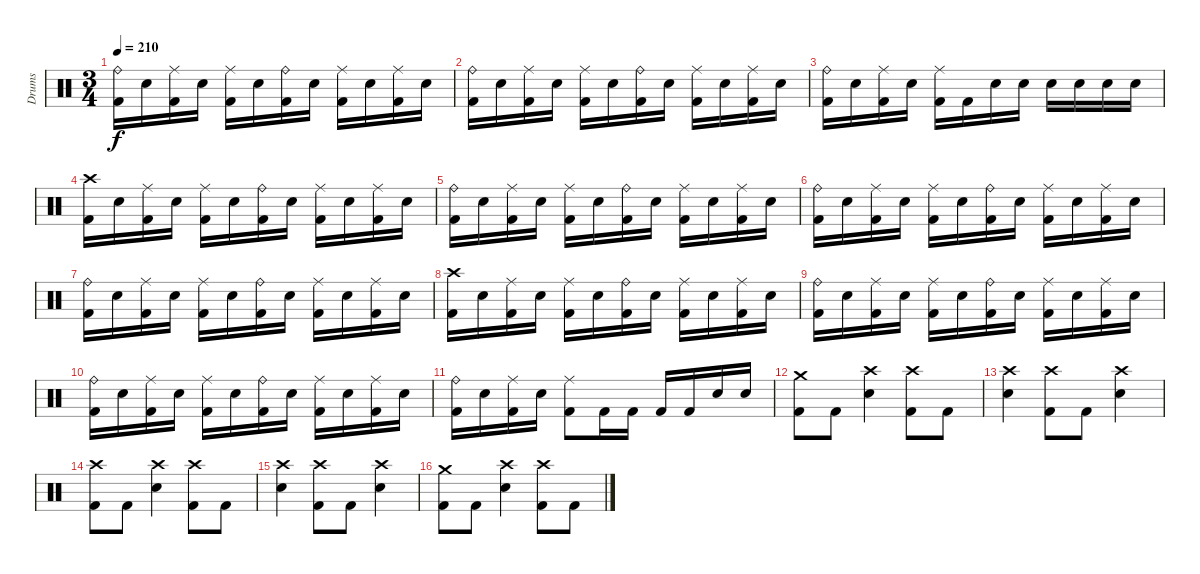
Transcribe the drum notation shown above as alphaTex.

\track ("Drums" "Drums") {instrument percussion}
\staff {score}
\articulation defaults
\ts (3 4)
\tempo 210
\clef neutral
\ks c
("Ride (bell)" "Kick (hit) 2").16{dy f} "Electric Snare (hit)".16 ("Ride (middle)" "Kick (hit) 2").16 "Electric Snare (hit)".16 ("Ride (middle)" "Kick (hit) 2").16 "Electric Snare (hit)".16 ("Ride (bell)" "Kick (hit) 2").16 "Electric Snare (hit)".16 ("Ride (middle)" "Kick (hit) 2").16 "Electric Snare (hit)".16 ("Ride (middle)" "Kick (hit) 2").16 "Electric Snare (hit)".16 |
("Ride (bell)" "Kick (hit) 2").16 "Electric Snare (hit)".16 ("Ride (middle)" "Kick (hit) 2").16 "Electric Snare (hit)".16 ("Ride (middle)" "Kick (hit) 2").16 "Electric Snare (hit)".16 ("Ride (bell)" "Kick (hit) 2").16 "Electric Snare (hit)".16 ("Ride (middle)" "Kick (hit) 2").16 "Electric Snare (hit)".16 ("Ride (middle)" "Kick (hit) 2").16 "Electric Snare (hit)".16 |
("Ride (bell)" "Kick (hit) 2").16 "Electric Snare (hit)".16 ("Ride (middle)" "Kick (hit) 2").16 "Electric Snare (hit)".16 ("Ride (middle)" "Kick (hit) 2").16 "Kick (hit) 2".16 "Electric Snare (hit)".16 "Electric Snare (hit)".16 "Electric Snare (hit)".16 "Electric Snare (hit)".16 "Electric Snare (hit)".16 "Electric Snare (hit)".16 |
("Crash high (hit)" "Kick (hit) 2").16 "Electric Snare (hit)".16 ("Ride (middle)" "Kick (hit) 2").16 "Electric Snare (hit)".16 ("Ride (middle)" "Kick (hit) 2").16 "Electric Snare (hit)".16 ("Ride (bell)" "Kick (hit) 2").16 "Electric Snare (hit)".16 ("Ride (middle)" "Kick (hit) 2").16 "Electric Snare (hit)".16 ("Ride (middle)" "Kick (hit) 2").16 "Electric Snare (hit)".16 |
("Ride (bell)" "Kick (hit) 2").16 "Electric Snare (hit)".16 ("Ride (middle)" "Kick (hit) 2").16 "Electric Snare (hit)".16 ("Ride (middle)" "Kick (hit) 2").16 "Electric Snare (hit)".16 ("Ride (bell)" "Kick (hit) 2").16 "Electric Snare (hit)".16 ("Ride (middle)" "Kick (hit) 2").16 "Electric Snare (hit)".16 ("Ride (middle)" "Kick (hit) 2").16 "Electric Snare (hit)".16 |
("Ride (bell)" "Kick (hit) 2").16 "Electric Snare (hit)".16 ("Ride (middle)" "Kick (hit) 2").16 "Electric Snare (hit)".16 ("Ride (middle)" "Kick (hit) 2").16 "Electric Snare (hit)".16 ("Ride (bell)" "Kick (hit) 2").16 "Electric Snare (hit)".16 ("Ride (middle)" "Kick (hit) 2").16 "Electric Snare (hit)".16 ("Ride (middle)" "Kick (hit) 2").16 "Electric Snare (hit)".16 |
("Ride (bell)" "Kick (hit) 2").16 "Electric Snare (hit)".16 ("Ride (middle)" "Kick (hit) 2").16 "Electric Snare (hit)".16 ("Ride (middle)" "Kick (hit) 2").16 "Electric Snare (hit)".16 ("Ride (bell)" "Kick (hit) 2").16 "Electric Snare (hit)".16 ("Ride (middle)" "Kick (hit) 2").16 "Electric Snare (hit)".16 ("Ride (middle)" "Kick (hit) 2").16 "Electric Snare (hit)".16 |
("Crash high (hit)" "Kick (hit) 2").16 "Electric Snare (hit)".16 ("Ride (middle)" "Kick (hit) 2").16 "Electric Snare (hit)".16 ("Ride (middle)" "Kick (hit) 2").16 "Electric Snare (hit)".16 ("Ride (bell)" "Kick (hit) 2").16 "Electric Snare (hit)".16 ("Ride (middle)" "Kick (hit) 2").16 "Electric Snare (hit)".16 ("Ride (middle)" "Kick (hit) 2").16 "Electric Snare (hit)".16 |
("Ride (bell)" "Kick (hit) 2").16 "Electric Snare (hit)".16 ("Ride (middle)" "Kick (hit) 2").16 "Electric Snare (hit)".16 ("Ride (middle)" "Kick (hit) 2").16 "Electric Snare (hit)".16 ("Ride (bell)" "Kick (hit) 2").16 "Electric Snare (hit)".16 ("Ride (middle)" "Kick (hit) 2").16 "Electric Snare (hit)".16 ("Ride (middle)" "Kick (hit) 2").16 "Electric Snare (hit)".16 |
("Ride (bell)" "Kick (hit) 2").16 "Electric Snare (hit)".16 ("Ride (middle)" "Kick (hit) 2").16 "Electric Snare (hit)".16 ("Ride (middle)" "Kick (hit) 2").16 "Electric Snare (hit)".16 ("Ride (bell)" "Kick (hit) 2").16 "Electric Snare (hit)".16 ("Ride (middle)" "Kick (hit) 2").16 "Electric Snare (hit)".16 ("Ride (middle)" "Kick (hit) 2").16 "Electric Snare (hit)".16 |
("Ride (bell)" "Kick (hit) 2").16 "Electric Snare (hit)".16 ("Ride (middle)" "Kick (hit) 2").16 "Electric Snare (hit)".16 ("Ride (middle)" "Kick (hit) 2").8 "Kick (hit) 2".16 "Kick (hit) 2".16 "Kick (hit) 2".16 "Kick (hit) 2".16 "Electric Snare (hit)".16 "Electric Snare (hit)".16 |
("Crash medium (hit)" "Kick (hit) 2").8 "Kick (hit) 2".8 ("Crash high (hit)" "Electric Snare (hit)").4 ("Crash high (hit)" "Kick (hit) 2").8 "Kick (hit) 2".8 |
("Crash high (hit)" "Electric Snare (hit)").4 ("Crash high (hit)" "Kick (hit) 2").8 "Kick (hit) 2".8 ("Crash high (hit)" "Electric Snare (hit)").4 |
("Crash high (hit)" "Kick (hit) 2").8 "Kick (hit) 2".8 ("Crash high (hit)" "Electric Snare (hit)").4 ("Crash high (hit)" "Kick (hit) 2").8 "Kick (hit) 2".8 |
("Crash high (hit)" "Electric Snare (hit)").4 ("Crash high (hit)" "Kick (hit) 2").8 "Kick (hit) 2".8 ("Crash high (hit)" "Electric Snare (hit)").4 |
("Crash medium (hit)" "Kick (hit) 2").8 "Kick (hit) 2".8 ("Crash high (hit)" "Electric Snare (hit)").4 ("Crash high (hit)" "Kick (hit) 2").8 "Kick (hit) 2".8
